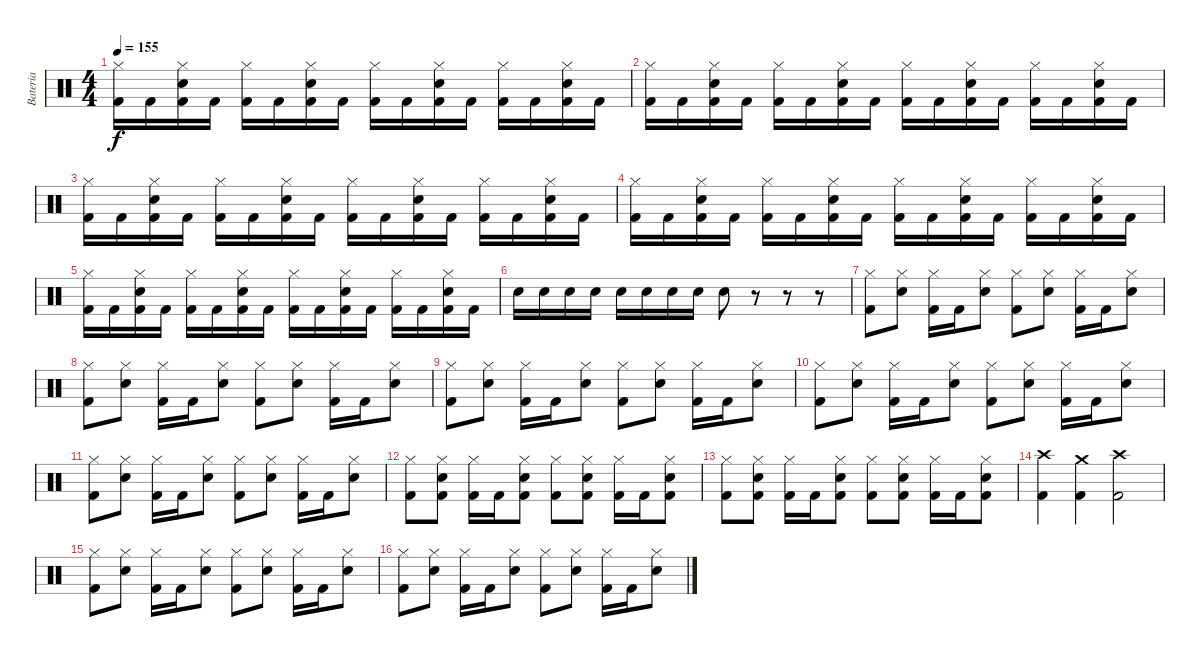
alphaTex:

\track ("Bateria" "Bateria") {instrument percussion}
\staff {score}
\articulation defaults
\ts (4 4)
\tempo 155
\clef neutral
\ks c
("Kick (hit) 2" "Hi-Hat (closed)").16{dy f} "Kick (hit) 2".16 ("Kick (hit) 2" "Hi-Hat (closed)" "Electric Snare (hit)").16 "Kick (hit) 2".16 ("Kick (hit) 2" "Hi-Hat (closed)").16 "Kick (hit) 2".16 ("Kick (hit) 2" "Hi-Hat (closed)" "Electric Snare (hit)").16 "Kick (hit) 2".16 ("Kick (hit) 2" "Hi-Hat (closed)").16 "Kick (hit) 2".16 ("Kick (hit) 2" "Hi-Hat (closed)" "Electric Snare (hit)").16 "Kick (hit) 2".16 ("Kick (hit) 2" "Hi-Hat (closed)").16 "Kick (hit) 2".16 ("Kick (hit) 2" "Hi-Hat (closed)" "Electric Snare (hit)").16 "Kick (hit) 2".16 |
("Kick (hit) 2" "Hi-Hat (closed)").16 "Kick (hit) 2".16 ("Kick (hit) 2" "Hi-Hat (closed)" "Electric Snare (hit)").16 "Kick (hit) 2".16 ("Kick (hit) 2" "Hi-Hat (closed)").16 "Kick (hit) 2".16 ("Kick (hit) 2" "Hi-Hat (closed)" "Electric Snare (hit)").16 "Kick (hit) 2".16 ("Kick (hit) 2" "Hi-Hat (closed)").16 "Kick (hit) 2".16 ("Kick (hit) 2" "Hi-Hat (closed)" "Electric Snare (hit)").16 "Kick (hit) 2".16 ("Kick (hit) 2" "Hi-Hat (closed)").16 "Kick (hit) 2".16 ("Kick (hit) 2" "Hi-Hat (closed)" "Electric Snare (hit)").16 "Kick (hit) 2".16 |
("Kick (hit) 2" "Hi-Hat (closed)").16 "Kick (hit) 2".16 ("Kick (hit) 2" "Hi-Hat (closed)" "Electric Snare (hit)").16 "Kick (hit) 2".16 ("Kick (hit) 2" "Hi-Hat (closed)").16 "Kick (hit) 2".16 ("Kick (hit) 2" "Hi-Hat (closed)" "Electric Snare (hit)").16 "Kick (hit) 2".16 ("Kick (hit) 2" "Hi-Hat (closed)").16 "Kick (hit) 2".16 ("Kick (hit) 2" "Hi-Hat (closed)" "Electric Snare (hit)").16 "Kick (hit) 2".16 ("Kick (hit) 2" "Hi-Hat (closed)").16 "Kick (hit) 2".16 ("Kick (hit) 2" "Hi-Hat (closed)" "Electric Snare (hit)").16 "Kick (hit) 2".16 |
("Kick (hit) 2" "Hi-Hat (closed)").16 "Kick (hit) 2".16 ("Kick (hit) 2" "Hi-Hat (closed)" "Electric Snare (hit)").16 "Kick (hit) 2".16 ("Kick (hit) 2" "Hi-Hat (closed)").16 "Kick (hit) 2".16 ("Kick (hit) 2" "Hi-Hat (closed)" "Electric Snare (hit)").16 "Kick (hit) 2".16 ("Kick (hit) 2" "Hi-Hat (closed)").16 "Kick (hit) 2".16 ("Kick (hit) 2" "Hi-Hat (closed)" "Electric Snare (hit)").16 "Kick (hit) 2".16 ("Kick (hit) 2" "Hi-Hat (closed)").16 "Kick (hit) 2".16 ("Kick (hit) 2" "Hi-Hat (closed)" "Electric Snare (hit)").16 "Kick (hit) 2".16 |
("Kick (hit) 2" "Hi-Hat (closed)").16 "Kick (hit) 2".16 ("Kick (hit) 2" "Hi-Hat (closed)" "Electric Snare (hit)").16 "Kick (hit) 2".16 ("Kick (hit) 2" "Hi-Hat (closed)").16 "Kick (hit) 2".16 ("Kick (hit) 2" "Hi-Hat (closed)" "Electric Snare (hit)").16 "Kick (hit) 2".16 ("Kick (hit) 2" "Hi-Hat (closed)").16 "Kick (hit) 2".16 ("Kick (hit) 2" "Hi-Hat (closed)" "Electric Snare (hit)").16 "Kick (hit) 2".16 ("Kick (hit) 2" "Hi-Hat (closed)").16 "Kick (hit) 2".16 ("Kick (hit) 2" "Hi-Hat (closed)" "Electric Snare (hit)").16 "Kick (hit) 2".16 |
"Electric Snare (hit)".16 "Electric Snare (hit)".16 "Electric Snare (hit)".16 "Electric Snare (hit)".16 "Electric Snare (hit)".16 "Electric Snare (hit)".16 "Electric Snare (hit)".16 "Electric Snare (hit)".16 "Electric Snare (hit)".8 r.8 r.8 r.8 |
("Kick (hit) 2" "Hi-Hat (closed)").8 ("Electric Snare (hit)" "Hi-Hat (closed)").8 ("Kick (hit) 2" "Hi-Hat (closed)").16 "Kick (hit) 2".16 ("Electric Snare (hit)" "Hi-Hat (closed)").8 ("Kick (hit) 2" "Hi-Hat (closed)").8 ("Electric Snare (hit)" "Hi-Hat (closed)").8 ("Kick (hit) 2" "Hi-Hat (closed)").16 "Kick (hit) 2".16 ("Electric Snare (hit)" "Hi-Hat (closed)").8 |
("Kick (hit) 2" "Hi-Hat (closed)").8 ("Electric Snare (hit)" "Hi-Hat (closed)").8 ("Kick (hit) 2" "Hi-Hat (closed)").16 "Kick (hit) 2".16 ("Electric Snare (hit)" "Hi-Hat (closed)").8 ("Kick (hit) 2" "Hi-Hat (closed)").8 ("Electric Snare (hit)" "Hi-Hat (closed)").8 ("Kick (hit) 2" "Hi-Hat (closed)").16 "Kick (hit) 2".16 ("Electric Snare (hit)" "Hi-Hat (closed)").8 |
("Kick (hit) 2" "Hi-Hat (closed)").8 ("Electric Snare (hit)" "Hi-Hat (closed)").8 ("Kick (hit) 2" "Hi-Hat (closed)").16 "Kick (hit) 2".16 ("Electric Snare (hit)" "Hi-Hat (closed)").8 ("Kick (hit) 2" "Hi-Hat (closed)").8 ("Electric Snare (hit)" "Hi-Hat (closed)").8 ("Kick (hit) 2" "Hi-Hat (closed)").16 "Kick (hit) 2".16 ("Electric Snare (hit)" "Hi-Hat (closed)").8 |
("Kick (hit) 2" "Hi-Hat (closed)").8 ("Electric Snare (hit)" "Hi-Hat (closed)").8 ("Kick (hit) 2" "Hi-Hat (closed)").16 "Kick (hit) 2".16 ("Electric Snare (hit)" "Hi-Hat (closed)").8 ("Kick (hit) 2" "Hi-Hat (closed)").8 ("Electric Snare (hit)" "Hi-Hat (closed)").8 ("Kick (hit) 2" "Hi-Hat (closed)").16 "Kick (hit) 2".16 ("Electric Snare (hit)" "Hi-Hat (closed)").8 |
("Kick (hit) 2" "Hi-Hat (closed)").8 ("Electric Snare (hit)" "Hi-Hat (closed)").8 ("Kick (hit) 2" "Hi-Hat (closed)").16 "Kick (hit) 2".16 ("Electric Snare (hit)" "Hi-Hat (closed)").8 ("Kick (hit) 2" "Hi-Hat (closed)").8 ("Electric Snare (hit)" "Hi-Hat (closed)").8 ("Kick (hit) 2" "Hi-Hat (closed)").16 "Kick (hit) 2".16 ("Electric Snare (hit)" "Hi-Hat (closed)").8 |
("Kick (hit) 2" "Hi-Hat (closed)").8 ("Kick (hit) 2" "Electric Snare (hit)" "Hi-Hat (closed)").8 ("Kick (hit) 2" "Hi-Hat (closed)").16 "Kick (hit) 2".16 ("Kick (hit) 2" "Electric Snare (hit)" "Hi-Hat (closed)").8 ("Kick (hit) 2" "Hi-Hat (closed)").8 ("Kick (hit) 2" "Electric Snare (hit)" "Hi-Hat (closed)").8 ("Kick (hit) 2" "Hi-Hat (closed)").16 "Kick (hit) 2".16 ("Kick (hit) 2" "Electric Snare (hit)" "Hi-Hat (closed)").8 |
("Kick (hit) 2" "Hi-Hat (closed)").8 ("Kick (hit) 2" "Electric Snare (hit)" "Hi-Hat (closed)").8 ("Kick (hit) 2" "Hi-Hat (closed)").16 "Kick (hit) 2".16 ("Kick (hit) 2" "Electric Snare (hit)" "Hi-Hat (closed)").8 ("Kick (hit) 2" "Hi-Hat (closed)").8 ("Kick (hit) 2" "Electric Snare (hit)" "Hi-Hat (closed)").8 ("Kick (hit) 2" "Hi-Hat (closed)").16 "Kick (hit) 2".16 ("Kick (hit) 2" "Electric Snare (hit)" "Hi-Hat (closed)").8 |
("Kick (hit) 2" "Crash high (hit)").4 ("Kick (hit) 2" "Crash medium (hit)").4 ("Kick (hit) 2" "Crash high (hit)").2 |
("Kick (hit) 2" "Hi-Hat (closed)").8 ("Electric Snare (hit)" "Hi-Hat (closed)").8 ("Kick (hit) 2" "Hi-Hat (closed)").16 "Kick (hit) 2".16 ("Electric Snare (hit)" "Hi-Hat (closed)").8 ("Kick (hit) 2" "Hi-Hat (closed)").8 ("Electric Snare (hit)" "Hi-Hat (closed)").8 ("Kick (hit) 2" "Hi-Hat (closed)").16 "Kick (hit) 2".16 ("Electric Snare (hit)" "Hi-Hat (closed)").8 |
("Kick (hit) 2" "Hi-Hat (closed)").8 ("Electric Snare (hit)" "Hi-Hat (closed)").8 ("Kick (hit) 2" "Hi-Hat (closed)").16 "Kick (hit) 2".16 ("Electric Snare (hit)" "Hi-Hat (closed)").8 ("Kick (hit) 2" "Hi-Hat (closed)").8 ("Electric Snare (hit)" "Hi-Hat (closed)").8 ("Kick (hit) 2" "Hi-Hat (closed)").16 "Kick (hit) 2".16 ("Electric Snare (hit)" "Hi-Hat (closed)").8
